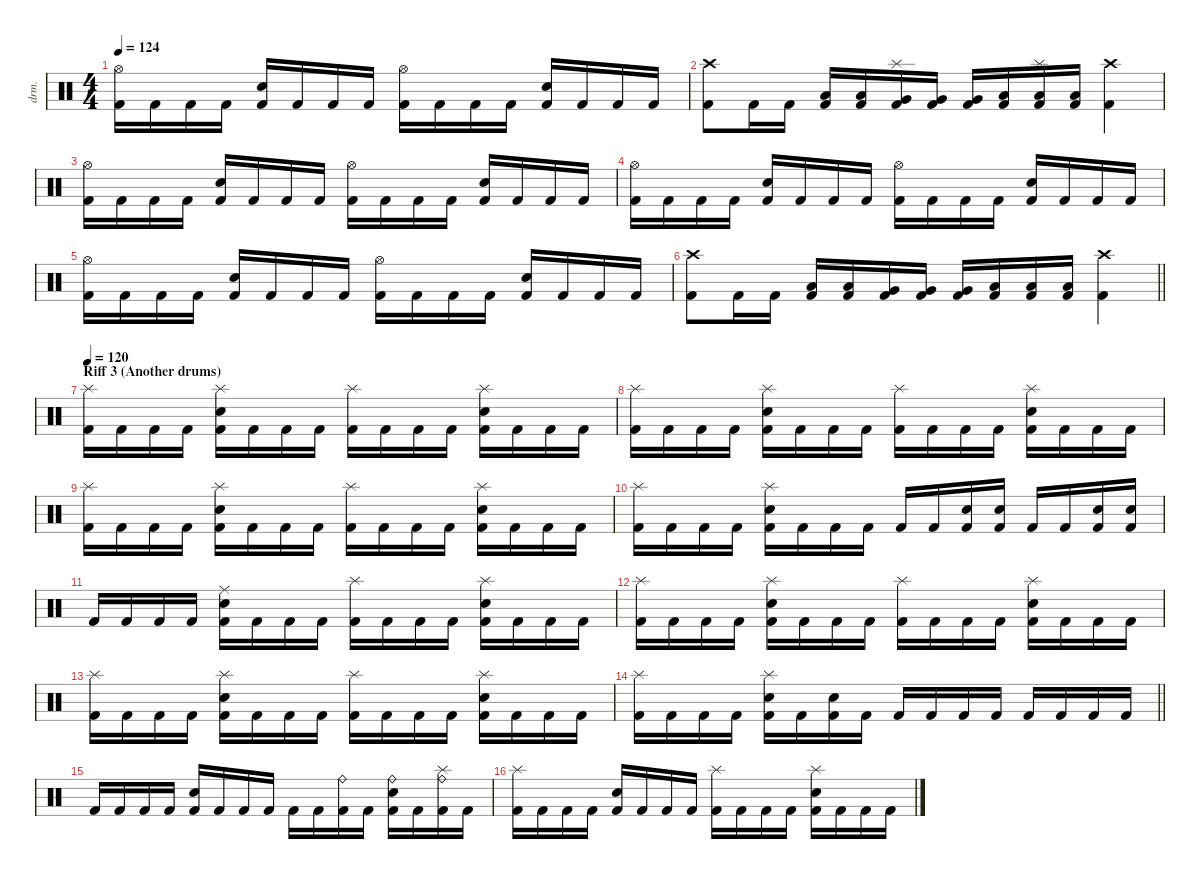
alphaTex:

\defaultSystemsLayout 4
\hideDynamics
\bracketExtendMode nobrackets
\otherSystemsTrackNameOrientation horizontal
\track ("Drums" "drm.") {instrument percussion}
\staff {score}
\articulation defaults
\ts (4 4)
\tempo 124
\clef neutral
\ks c
("Hi-Hat (open)" "Kick (hit) 2").16{dy f} "Kick (hit) 2".16 "Kick (hit) 2".16 "Kick (hit) 2".16 ("Snare (hit) 2" "Kick (hit) 2").16 "Kick (hit) 2".16 "Kick (hit) 2".16 "Kick (hit) 2".16 ("Hi-Hat (open)" "Kick (hit) 2").16 "Kick (hit) 2".16 "Kick (hit) 2".16 "Kick (hit) 2".16 ("Snare (hit) 2" "Kick (hit) 2").16 "Kick (hit) 2".16 "Kick (hit) 2".16 "Kick (hit) 2".16 |
("Crash high (hit)" "Kick (hit) 2").8 "Kick (hit) 2".16 "Kick (hit) 2".16 ("Low Tom (hit)" "Kick (hit) 2").16 ("Low Tom (hit)" "Kick (hit) 2").16 ("Splash (hit)" "Very Low Tom (hit)" "Kick (hit) 2").16 ("Very Low Tom (hit)" "Kick (hit) 2").16 ("Very Low Tom (hit)" "Kick (hit) 2").16 ("Low Floor Tom (hit)" "Kick (hit) 2").16 ("Splash (hit)" "Low Floor Tom (hit)" "Kick (hit) 2").16 ("Low Floor Tom (hit)" "Kick (hit) 2").16 ("Crash high (hit)" "Kick (hit) 2").4 |
("Hi-Hat (open)" "Kick (hit) 2").16 "Kick (hit) 2".16 "Kick (hit) 2".16 "Kick (hit) 2".16 ("Snare (hit) 2" "Kick (hit) 2").16 "Kick (hit) 2".16 "Kick (hit) 2".16 "Kick (hit) 2".16 ("Hi-Hat (open)" "Kick (hit) 2").16 "Kick (hit) 2".16 "Kick (hit) 2".16 "Kick (hit) 2".16 ("Snare (hit) 2" "Kick (hit) 2").16 "Kick (hit) 2".16 "Kick (hit) 2".16 "Kick (hit) 2".16 |
("Hi-Hat (open)" "Kick (hit) 2").16 "Kick (hit) 2".16 "Kick (hit) 2".16 "Kick (hit) 2".16 ("Snare (hit) 2" "Kick (hit) 2").16 "Kick (hit) 2".16 "Kick (hit) 2".16 "Kick (hit) 2".16 ("Hi-Hat (open)" "Kick (hit) 2").16 "Kick (hit) 2".16 "Kick (hit) 2".16 "Kick (hit) 2".16 ("Snare (hit) 2" "Kick (hit) 2").16 "Kick (hit) 2".16 "Kick (hit) 2".16 "Kick (hit) 2".16 |
("Hi-Hat (open)" "Kick (hit) 2").16 "Kick (hit) 2".16 "Kick (hit) 2".16 "Kick (hit) 2".16 ("Snare (hit) 2" "Kick (hit) 2").16 "Kick (hit) 2".16 "Kick (hit) 2".16 "Kick (hit) 2".16 ("Hi-Hat (open)" "Kick (hit) 2").16 "Kick (hit) 2".16 "Kick (hit) 2".16 "Kick (hit) 2".16 ("Snare (hit) 2" "Kick (hit) 2").16 "Kick (hit) 2".16 "Kick (hit) 2".16 "Kick (hit) 2".16 |
\barLineRight lightlight
("Crash high (hit)" "Kick (hit) 2").8 "Kick (hit) 2".16 "Kick (hit) 2".16 ("Low Tom (hit)" "Kick (hit) 2").16 ("Low Tom (hit)" "Kick (hit) 2").16 ("Very Low Tom (hit)" "Kick (hit) 2").16 ("Very Low Tom (hit)" "Kick (hit) 2").16 ("Very Low Tom (hit)" "Kick (hit) 2").16 ("Low Floor Tom (hit)" "Kick (hit) 2").16 ("Low Floor Tom (hit)" "Kick (hit) 2").16 ("Low Floor Tom (hit)" "Kick (hit) 2").16 ("Crash high (hit)" "Kick (hit) 2").4 |
\section ("" "Riff 3 (Another drums)")
\tempo 120
("Splash (hit)" "Kick (hit) 2").16 "Kick (hit) 2".16 "Kick (hit) 2".16 "Kick (hit) 2".16 ("Splash (hit)" "Snare (hit) 2" "Kick (hit) 2").16 "Kick (hit) 2".16 "Kick (hit) 2".16 "Kick (hit) 2".16 ("Splash (hit)" "Kick (hit) 2").16 "Kick (hit) 2".16 "Kick (hit) 2".16 "Kick (hit) 2".16 ("Splash (hit)" "Snare (hit) 2" "Kick (hit) 2").16 "Kick (hit) 2".16 "Kick (hit) 2".16 "Kick (hit) 2".16 |
("Splash (hit)" "Kick (hit) 2").16 "Kick (hit) 2".16 "Kick (hit) 2".16 "Kick (hit) 2".16 ("Splash (hit)" "Snare (hit) 2" "Kick (hit) 2").16 "Kick (hit) 2".16 "Kick (hit) 2".16 "Kick (hit) 2".16 ("Splash (hit)" "Kick (hit) 2").16 "Kick (hit) 2".16 "Kick (hit) 2".16 "Kick (hit) 2".16 ("Splash (hit)" "Snare (hit) 2" "Kick (hit) 2").16 "Kick (hit) 2".16 "Kick (hit) 2".16 "Kick (hit) 2".16 |
("Splash (hit)" "Kick (hit) 2").16 "Kick (hit) 2".16 "Kick (hit) 2".16 "Kick (hit) 2".16 ("Splash (hit)" "Snare (hit) 2" "Kick (hit) 2").16 "Kick (hit) 2".16 "Kick (hit) 2".16 "Kick (hit) 2".16 ("Splash (hit)" "Kick (hit) 2").16 "Kick (hit) 2".16 "Kick (hit) 2".16 "Kick (hit) 2".16 ("Splash (hit)" "Snare (hit) 2" "Kick (hit) 2").16 "Kick (hit) 2".16 "Kick (hit) 2".16 "Kick (hit) 2".16 |
("Splash (hit)" "Kick (hit) 2").16 "Kick (hit) 2".16 "Kick (hit) 2".16 "Kick (hit) 2".16 ("Splash (hit)" "Snare (hit) 2" "Kick (hit) 2").16 "Kick (hit) 2".16 "Kick (hit) 2".16 "Kick (hit) 2".16 "Kick (hit) 2".16 "Kick (hit) 2".16 ("Snare (hit) 2" "Kick (hit) 2").16 ("Snare (hit) 2" "Kick (hit) 2").16 "Kick (hit) 2".16 "Kick (hit) 2".16 ("Snare (hit) 2" "Kick (hit) 2").16 ("Snare (hit) 2" "Kick (hit) 2").16 |
"Kick (hit) 2".16 "Kick (hit) 2".16 "Kick (hit) 2".16 "Kick (hit) 2".16 ("Ride (middle)" "Snare (hit) 2" "Kick (hit) 2").16 "Kick (hit) 2".16 "Kick (hit) 2".16 "Kick (hit) 2".16 ("Splash (hit)" "Kick (hit) 2").16 "Kick (hit) 2".16 "Kick (hit) 2".16 "Kick (hit) 2".16 ("Splash (hit)" "Snare (hit) 2" "Kick (hit) 2").16 "Kick (hit) 2".16 "Kick (hit) 2".16 "Kick (hit) 2".16 |
("Splash (hit)" "Kick (hit) 2").16 "Kick (hit) 2".16 "Kick (hit) 2".16 "Kick (hit) 2".16 ("Splash (hit)" "Snare (hit) 2" "Kick (hit) 2").16 "Kick (hit) 2".16 "Kick (hit) 2".16 "Kick (hit) 2".16 ("Splash (hit)" "Kick (hit) 2").16 "Kick (hit) 2".16 "Kick (hit) 2".16 "Kick (hit) 2".16 ("Splash (hit)" "Snare (hit) 2" "Kick (hit) 2").16 "Kick (hit) 2".16 "Kick (hit) 2".16 "Kick (hit) 2".16 |
("Splash (hit)" "Kick (hit) 2").16 "Kick (hit) 2".16 "Kick (hit) 2".16 "Kick (hit) 2".16 ("Splash (hit)" "Snare (hit) 2" "Kick (hit) 2").16 "Kick (hit) 2".16 "Kick (hit) 2".16 "Kick (hit) 2".16 ("Splash (hit)" "Kick (hit) 2").16 "Kick (hit) 2".16 "Kick (hit) 2".16 "Kick (hit) 2".16 ("Splash (hit)" "Snare (hit) 2" "Kick (hit) 2").16 "Kick (hit) 2".16 "Kick (hit) 2".16 "Kick (hit) 2".16 |
\barLineRight lightlight
("Splash (hit)" "Kick (hit) 2").16 "Kick (hit) 2".16 "Kick (hit) 2".16 "Kick (hit) 2".16 ("Splash (hit)" "Snare (hit) 2" "Kick (hit) 2").16 "Kick (hit) 2".16 ("Snare (hit) 2" "Kick (hit) 2").16 "Kick (hit) 2".16 "Kick (hit) 2".16 "Kick (hit) 2".16 "Kick (hit) 2".16 "Kick (hit) 2".16 "Kick (hit) 2".16 "Kick (hit) 2".16 "Kick (hit) 2".16 "Kick (hit) 2".16 |
"Kick (hit) 2".16 "Kick (hit) 2".16 "Kick (hit) 2".16 "Kick (hit) 2".16 ("Snare (hit) 2" "Kick (hit) 2").16 "Kick (hit) 2".16 "Kick (hit) 2".16 "Kick (hit) 2".16 "Kick (hit) 2".16 "Kick (hit) 2".16 ("Ride (bell)" "Kick (hit) 2").16 "Kick (hit) 2".16 ("Ride (bell)" "Snare (hit) 2" "Kick (hit) 2").16 "Kick (hit) 2".16 ("Ride (bell)" "Splash (hit)" "Kick (hit) 2").16 "Kick (hit) 2".16 |
("Splash (hit)" "Kick (hit) 2").16 "Kick (hit) 2".16 "Kick (hit) 2".16 "Kick (hit) 2".16 ("Snare (hit) 2" "Kick (hit) 2").16 "Kick (hit) 2".16 "Kick (hit) 2".16 "Kick (hit) 2".16 ("Splash (hit)" "Kick (hit) 2").16 "Kick (hit) 2".16 "Kick (hit) 2".16 "Kick (hit) 2".16 ("Splash (hit)" "Snare (hit) 2" "Kick (hit) 2").16 "Kick (hit) 2".16 "Kick (hit) 2".16 "Kick (hit) 2".16
